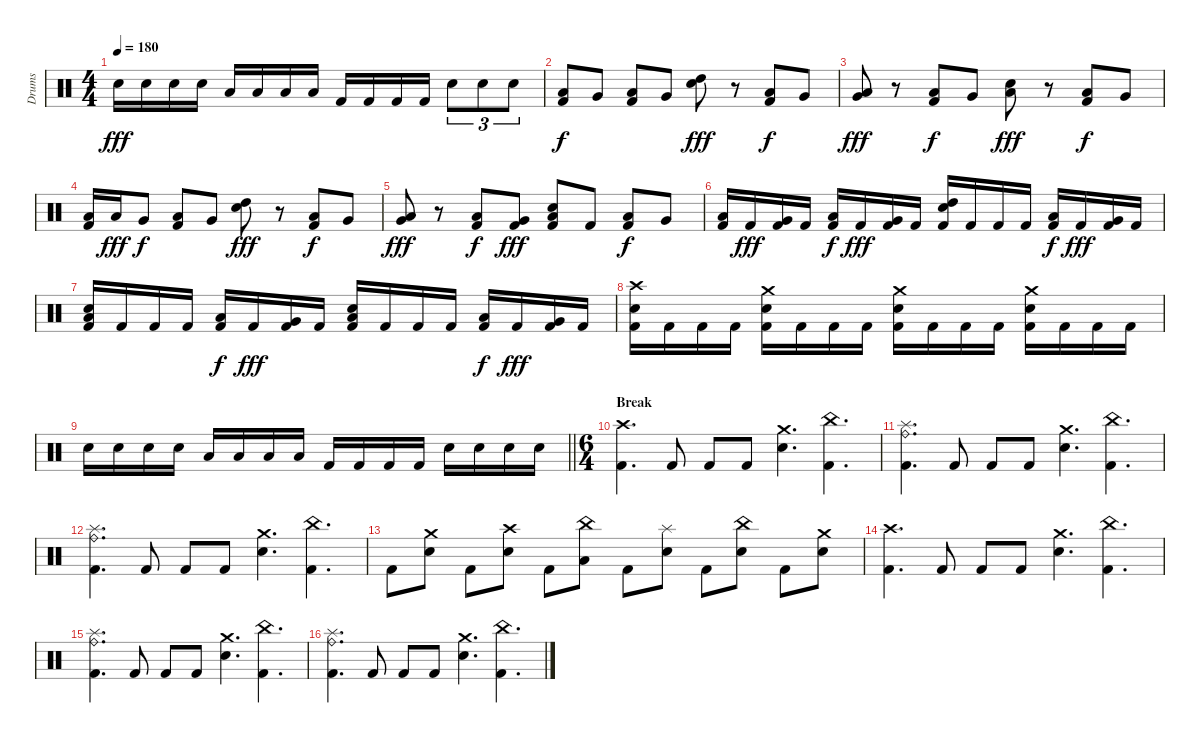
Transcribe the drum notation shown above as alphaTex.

\track ("Drums" "Drums") {instrument percussion}
\staff {score}
\articulation defaults
\ts (4 4)
\tempo 180
\clef neutral
\ks c "Electric Snare (hit)".16{dy fff} "Electric Snare (hit)".16 "Electric Snare (hit)".16 "Electric Snare (hit)".16 "Low Tom (hit)".16 "Low Tom (hit)".16 "Low Tom (hit)".16 "Low Tom (hit)".16 "Kick (hit) 2".16 "Kick (hit) 2".16 "Kick (hit) 2".16 "Kick (hit) 2".16 "Electric Snare (hit)".8{tu (3 2)} "Electric Snare (hit)".8{tu (3 2)} "Electric Snare (hit)".8{tu (3 2)}
|
("Low Tom (hit)" "Kick (hit) 2").8{dy f} "Very Low Tom (hit)".8 ("Low Tom (hit)" "Kick (hit) 2").8 "Very Low Tom (hit)".8 ("High Tom (hit)" "Electric Snare (hit)").8{dy fff} r.8 ("Low Tom (hit)" "Kick (hit) 2").8{dy f} "Very Low Tom (hit)".8 |
("Low Tom (hit)" "Very Low Tom (hit)").8{dy fff} r.8 ("Low Tom (hit)" "Kick (hit) 2").8{dy f} "Very Low Tom (hit)".8 ("Low Tom (hit)" "Electric Snare (hit)").8{dy fff} r.8 ("Low Tom (hit)" "Kick (hit) 2").8{dy f} "Very Low Tom (hit)".8 |
("Low Tom (hit)" "Kick (hit) 2").16 "Low Tom (hit)".16{dy fff} "Very Low Tom (hit)".8{dy f} ("Low Tom (hit)" "Kick (hit) 2").8 "Very Low Tom (hit)".8 ("High Tom (hit)" "Electric Snare (hit)").8{dy fff} r.8 ("Low Tom (hit)" "Kick (hit) 2").8{dy f} "Very Low Tom (hit)".8 |
("Low Tom (hit)" "Very Low Tom (hit)").8{dy fff} r.8 ("Low Tom (hit)" "Kick (hit) 2").8{dy f} ("Very Low Tom (hit)" "Kick (hit) 2").8{dy fff} ("Low Tom (hit)" "Electric Snare (hit)" "Kick (hit) 2").8 "Kick (hit) 2".8 ("Low Tom (hit)" "Kick (hit) 2").8{dy f} "Very Low Tom (hit)".8 |
("Low Tom (hit)" "Kick (hit) 2").16 "Kick (hit) 2".16{dy fff} ("Very Low Tom (hit)" "Kick (hit) 2").16 "Kick (hit) 2".16 ("Low Tom (hit)" "Kick (hit) 2").16{dy f} "Kick (hit) 2".16{dy fff} ("Very Low Tom (hit)" "Kick (hit) 2").16 "Kick (hit) 2".16 ("High Tom (hit)" "Electric Snare (hit)" "Kick (hit) 2").16 "Kick (hit) 2".16 "Kick (hit) 2".16 "Kick (hit) 2".16 ("Low Tom (hit)" "Kick (hit) 2").16{dy f} "Kick (hit) 2".16{dy fff} ("Very Low Tom (hit)" "Kick (hit) 2").16 "Kick (hit) 2".16 |
("Low Tom (hit)" "Electric Snare (hit)" "Kick (hit) 2").16 "Kick (hit) 2".16 "Kick (hit) 2".16 "Kick (hit) 2".16 ("Low Tom (hit)" "Kick (hit) 2").16{dy f} "Kick (hit) 2".16{dy fff} ("Very Low Tom (hit)" "Kick (hit) 2").16 "Kick (hit) 2".16 ("Low Tom (hit)" "Electric Snare (hit)" "Kick (hit) 2").16 "Kick (hit) 2".16 "Kick (hit) 2".16 "Kick (hit) 2".16 ("Low Tom (hit)" "Kick (hit) 2").16{dy f} "Kick (hit) 2".16{dy fff} ("Very Low Tom (hit)" "Kick (hit) 2").16 "Kick (hit) 2".16 |
("Crash high (hit)" "Electric Snare (hit)" "Kick (hit) 2").16 "Kick (hit) 2".16 "Kick (hit) 2".16 "Kick (hit) 2".16 ("Crash medium (hit)" "Electric Snare (hit)" "Kick (hit) 2").16 "Kick (hit) 2".16 "Kick (hit) 2".16 "Kick (hit) 2".16 ("Crash medium (hit)" "Electric Snare (hit)" "Kick (hit) 2").16 "Kick (hit) 2".16 "Kick (hit) 2".16 "Kick (hit) 2".16 ("Crash medium (hit)" "Electric Snare (hit)" "Kick (hit) 2").16 "Kick (hit) 2".16 "Kick (hit) 2".16 "Kick (hit) 2".16 |
\barLineRight lightlight "Electric Snare (hit)".16 "Electric Snare (hit)".16 "Electric Snare (hit)".16 "Electric Snare (hit)".16 "Low Tom (hit)".16 "Low Tom (hit)".16 "Low Tom (hit)".16 "Low Tom (hit)".16 "Kick (hit) 2".16 "Kick (hit) 2".16 "Kick (hit) 2".16 "Kick (hit) 2".16 "Electric Snare (hit)".16 "Electric Snare (hit)".16 "Electric Snare (hit)".16 "Electric Snare (hit)".16
|
\ts (6 4)
\section ("" "Break")
("Crash high (hit)" "Kick (hit) 2").4{d} "Kick (hit) 2".8 "Kick (hit) 2".8 "Kick (hit) 2".8 ("Crash medium (hit)" "Electric Snare (hit)").4{d} ("China (hit)" "Kick (hit) 2").4{d} |
("Ride (bell)" "Splash (hit)" "Kick (hit) 2").4{d} "Kick (hit) 2".8 "Kick (hit) 2".8 "Kick (hit) 2".8 ("Crash medium (hit)" "Electric Snare (hit)").4{d} ("China (hit)" "Kick (hit) 2").4{d} |
("Ride (bell)" "Splash (hit)" "Kick (hit) 2").4{d} "Kick (hit) 2".8 "Kick (hit) 2".8 "Kick (hit) 2".8 ("Crash medium (hit)" "Electric Snare (hit)").4{d} ("China (hit)" "Kick (hit) 2").4{d} |
"Kick (hit) 2".8 ("Crash medium (hit)" "Electric Snare (hit)").8 "Kick (hit) 2".8 ("Crash high (hit)" "Electric Snare (hit)").8 "Kick (hit) 2".8 ("China (hit)" "Low Tom (hit)").8 "Kick (hit) 2".8 ("Splash (hit)" "Electric Snare (hit)").8 "Kick (hit) 2".8 ("China (hit)" "Electric Snare (hit)").8 "Kick (hit) 2".8 ("Crash medium (hit)" "Electric Snare (hit)").8 |
("Crash high (hit)" "Kick (hit) 2").4{d} "Kick (hit) 2".8 "Kick (hit) 2".8 "Kick (hit) 2".8 ("Crash medium (hit)" "Electric Snare (hit)").4{d} ("China (hit)" "Kick (hit) 2").4{d} |
("Ride (bell)" "Splash (hit)" "Kick (hit) 2").4{d} "Kick (hit) 2".8 "Kick (hit) 2".8 "Kick (hit) 2".8 ("Crash medium (hit)" "Electric Snare (hit)").4{d} ("China (hit)" "Kick (hit) 2").4{d} |
("Ride (bell)" "Splash (hit)" "Kick (hit) 2").4{d} "Kick (hit) 2".8 "Kick (hit) 2".8 "Kick (hit) 2".8 ("Crash medium (hit)" "Electric Snare (hit)").4{d} ("China (hit)" "Kick (hit) 2").4{d}
